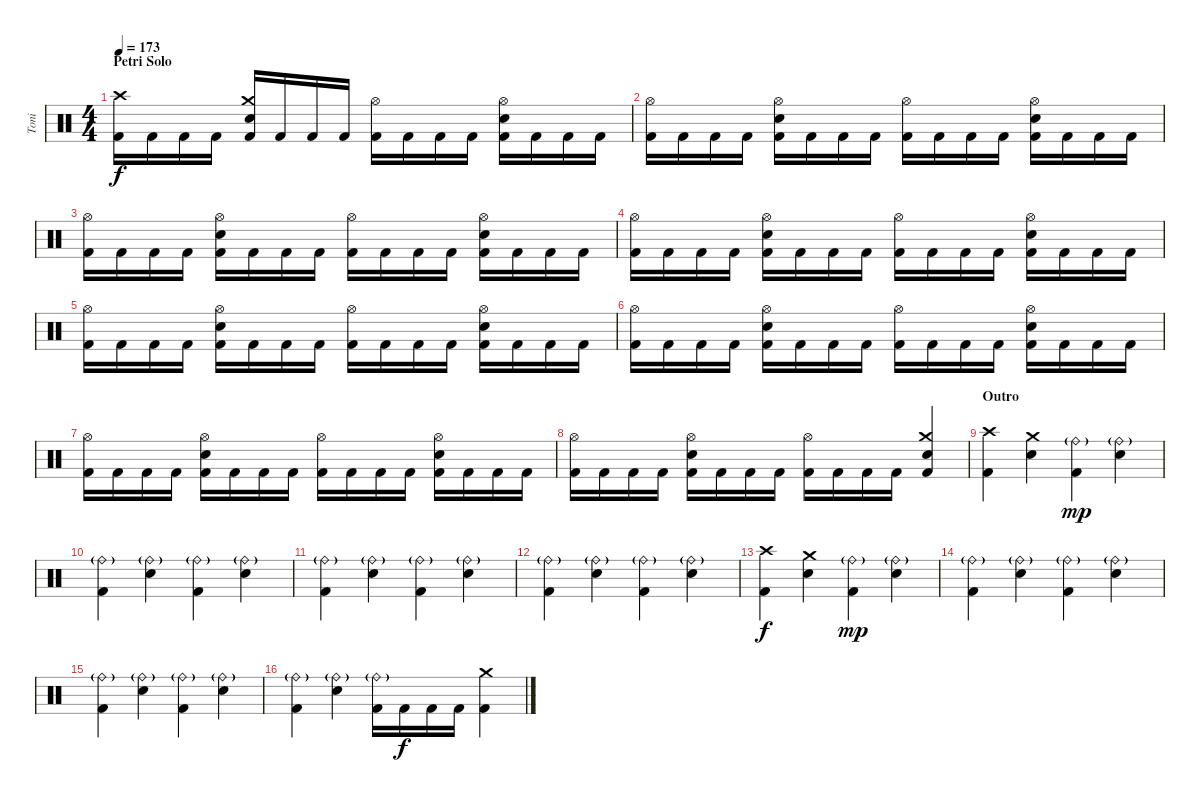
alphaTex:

\track ("Toni" "Toni") {instrument percussion}
\staff {score}
\articulation defaults
\ts (4 4)
\section ("" "Petri Solo")
\tempo 173
\clef neutral
\ks c
("Crash high (hit)" "Kick (hit) 2").16{dy f} "Kick (hit) 2".16 "Kick (hit) 2".16 "Kick (hit) 2".16 ("Crash medium (hit)" "Electric Snare (hit)" "Kick (hit) 2").16 "Kick (hit) 2".16 "Kick (hit) 2".16 "Kick (hit) 2".16 ("Hi-Hat (open)" "Kick (hit) 2").16 "Kick (hit) 2".16 "Kick (hit) 2".16 "Kick (hit) 2".16 ("Hi-Hat (open)" "Electric Snare (hit)" "Kick (hit) 2").16 "Kick (hit) 2".16 "Kick (hit) 2".16 "Kick (hit) 2".16 |
("Hi-Hat (open)" "Kick (hit) 2").16 "Kick (hit) 2".16 "Kick (hit) 2".16 "Kick (hit) 2".16 ("Hi-Hat (open)" "Electric Snare (hit)" "Kick (hit) 2").16 "Kick (hit) 2".16 "Kick (hit) 2".16 "Kick (hit) 2".16 ("Hi-Hat (open)" "Kick (hit) 2").16 "Kick (hit) 2".16 "Kick (hit) 2".16 "Kick (hit) 2".16 ("Hi-Hat (open)" "Electric Snare (hit)" "Kick (hit) 2").16 "Kick (hit) 2".16 "Kick (hit) 2".16 "Kick (hit) 2".16 |
("Hi-Hat (open)" "Kick (hit) 2").16 "Kick (hit) 2".16 "Kick (hit) 2".16 "Kick (hit) 2".16 ("Hi-Hat (open)" "Electric Snare (hit)" "Kick (hit) 2").16 "Kick (hit) 2".16 "Kick (hit) 2".16 "Kick (hit) 2".16 ("Hi-Hat (open)" "Kick (hit) 2").16 "Kick (hit) 2".16 "Kick (hit) 2".16 "Kick (hit) 2".16 ("Hi-Hat (open)" "Electric Snare (hit)" "Kick (hit) 2").16 "Kick (hit) 2".16 "Kick (hit) 2".16 "Kick (hit) 2".16 |
("Hi-Hat (open)" "Kick (hit) 2").16 "Kick (hit) 2".16 "Kick (hit) 2".16 "Kick (hit) 2".16 ("Hi-Hat (open)" "Electric Snare (hit)" "Kick (hit) 2").16 "Kick (hit) 2".16 "Kick (hit) 2".16 "Kick (hit) 2".16 ("Hi-Hat (open)" "Kick (hit) 2").16 "Kick (hit) 2".16 "Kick (hit) 2".16 "Kick (hit) 2".16 ("Hi-Hat (open)" "Electric Snare (hit)" "Kick (hit) 2").16 "Kick (hit) 2".16 "Kick (hit) 2".16 "Kick (hit) 2".16 |
("Hi-Hat (open)" "Kick (hit) 2").16 "Kick (hit) 2".16 "Kick (hit) 2".16 "Kick (hit) 2".16 ("Hi-Hat (open)" "Electric Snare (hit)" "Kick (hit) 2").16 "Kick (hit) 2".16 "Kick (hit) 2".16 "Kick (hit) 2".16 ("Hi-Hat (open)" "Kick (hit) 2").16 "Kick (hit) 2".16 "Kick (hit) 2".16 "Kick (hit) 2".16 ("Hi-Hat (open)" "Electric Snare (hit)" "Kick (hit) 2").16 "Kick (hit) 2".16 "Kick (hit) 2".16 "Kick (hit) 2".16 |
("Hi-Hat (open)" "Kick (hit) 2").16 "Kick (hit) 2".16 "Kick (hit) 2".16 "Kick (hit) 2".16 ("Hi-Hat (open)" "Electric Snare (hit)" "Kick (hit) 2").16 "Kick (hit) 2".16 "Kick (hit) 2".16 "Kick (hit) 2".16 ("Hi-Hat (open)" "Kick (hit) 2").16 "Kick (hit) 2".16 "Kick (hit) 2".16 "Kick (hit) 2".16 ("Hi-Hat (open)" "Electric Snare (hit)" "Kick (hit) 2").16 "Kick (hit) 2".16 "Kick (hit) 2".16 "Kick (hit) 2".16 |
("Hi-Hat (open)" "Kick (hit) 2").16 "Kick (hit) 2".16 "Kick (hit) 2".16 "Kick (hit) 2".16 ("Hi-Hat (open)" "Electric Snare (hit)" "Kick (hit) 2").16 "Kick (hit) 2".16 "Kick (hit) 2".16 "Kick (hit) 2".16 ("Hi-Hat (open)" "Kick (hit) 2").16 "Kick (hit) 2".16 "Kick (hit) 2".16 "Kick (hit) 2".16 ("Hi-Hat (open)" "Electric Snare (hit)" "Kick (hit) 2").16 "Kick (hit) 2".16 "Kick (hit) 2".16 "Kick (hit) 2".16 |
("Hi-Hat (open)" "Kick (hit) 2").16 "Kick (hit) 2".16 "Kick (hit) 2".16 "Kick (hit) 2".16 ("Hi-Hat (open)" "Electric Snare (hit)" "Kick (hit) 2").16 "Kick (hit) 2".16 "Kick (hit) 2".16 "Kick (hit) 2".16 ("Hi-Hat (open)" "Kick (hit) 2").16 "Kick (hit) 2".16 "Kick (hit) 2".16 "Kick (hit) 2".16 ("Crash medium (hit)" "Electric Snare (hit)" "Kick (hit) 2").4 |
\section ("" "Outro")
("Crash high (hit)" "Kick (hit) 2").4 ("Crash medium (hit)" "Electric Snare (hit)").4 ("Ride (bell)"{g} "Kick (hit) 2").4{dy mp} ("Ride (bell)"{g} "Electric Snare (hit)").4 |
("Ride (bell)"{g} "Kick (hit) 2").4 ("Ride (bell)"{g} "Electric Snare (hit)").4 ("Ride (bell)"{g} "Kick (hit) 2").4 ("Ride (bell)"{g} "Electric Snare (hit)").4 |
("Ride (bell)"{g} "Kick (hit) 2").4 ("Ride (bell)"{g} "Electric Snare (hit)").4 ("Ride (bell)"{g} "Kick (hit) 2").4 ("Ride (bell)"{g} "Electric Snare (hit)").4 |
("Ride (bell)"{g} "Kick (hit) 2").4 ("Ride (bell)"{g} "Electric Snare (hit)").4 ("Ride (bell)"{g} "Kick (hit) 2").4 ("Ride (bell)"{g} "Electric Snare (hit)").4 |
("Crash high (hit)" "Kick (hit) 2").4{dy f} ("Crash medium (hit)" "Electric Snare (hit)").4 ("Ride (bell)"{g} "Kick (hit) 2").4{dy mp} ("Ride (bell)"{g} "Electric Snare (hit)").4 |
("Ride (bell)"{g} "Kick (hit) 2").4 ("Ride (bell)"{g} "Electric Snare (hit)").4 ("Ride (bell)"{g} "Kick (hit) 2").4 ("Ride (bell)"{g} "Electric Snare (hit)").4 |
("Ride (bell)"{g} "Kick (hit) 2").4 ("Ride (bell)"{g} "Electric Snare (hit)").4 ("Ride (bell)"{g} "Kick (hit) 2").4 ("Ride (bell)"{g} "Electric Snare (hit)").4 |
("Ride (bell)"{g} "Kick (hit) 2").4 ("Ride (bell)"{g} "Electric Snare (hit)").4 ("Ride (bell)"{g} "Kick (hit) 2").16 "Kick (hit) 2".16{dy f} "Kick (hit) 2".16 "Kick (hit) 2".16 ("Crash medium (hit)" "Kick (hit) 2").4
